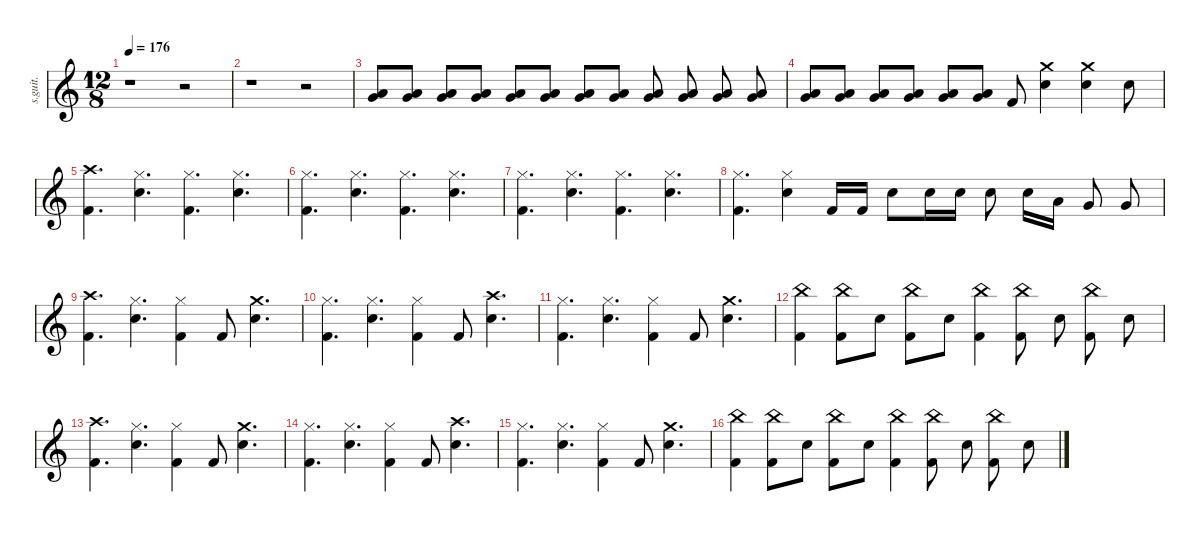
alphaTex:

\defaultSystemsLayout 4
\hideDynamics
\bracketExtendMode nobrackets
\track ("Vinnie Paul" "s.guit.") {instrument percussion}
\staff {score}
\articulation defaults
\ts (12 8)
\beaming (8 2 2 2 2)
\tempo 176
\clef g2
\ks c
r.1{dy f} r.2 |
r.1 r.2 |
("Very Low Tom (hit)" "Low Floor Tom (hit)").8{lyrics (0 "") lyrics (1 "") lyrics (2 "") lyrics (3 "") lyrics (4 "")} ("Very Low Tom (hit)" "Low Floor Tom (hit)").8{lyrics (0 "") lyrics (1 "") lyrics (2 "") lyrics (3 "") lyrics (4 "")} ("Very Low Tom (hit)" "Low Floor Tom (hit)").8{lyrics (0 "") lyrics (1 "") lyrics (2 "") lyrics (3 "") lyrics (4 "")} ("Very Low Tom (hit)" "Low Floor Tom (hit)").8{lyrics (0 "") lyrics (1 "") lyrics (2 "") lyrics (3 "") lyrics (4 "")} ("Very Low Tom (hit)" "Low Floor Tom (hit)").8{lyrics (0 "") lyrics (1 "") lyrics (2 "") lyrics (3 "") lyrics (4 "")} ("Very Low Tom (hit)" "Low Floor Tom (hit)").8{lyrics (0 "") lyrics (1 "") lyrics (2 "") lyrics (3 "") lyrics (4 "")} ("Very Low Tom (hit)" "Low Floor Tom (hit)").8{lyrics (0 "") lyrics (1 "") lyrics (2 "") lyrics (3 "") lyrics (4 "")} ("Very Low Tom (hit)" "Low Floor Tom (hit)").8{lyrics (0 "") lyrics (1 "") lyrics (2 "") lyrics (3 "") lyrics (4 "")} ("Very Low Tom (hit)" "Low Floor Tom (hit)").8{lyrics (0 "") lyrics (1 "") lyrics (2 "") lyrics (3 "") lyrics (4 "")} ("Very Low Tom (hit)" "Low Floor Tom (hit)").8{lyrics (0 "") lyrics (1 "") lyrics (2 "") lyrics (3 "") lyrics (4 "")} ("Very Low Tom (hit)" "Low Floor Tom (hit)").8{lyrics (0 "") lyrics (1 "") lyrics (2 "") lyrics (3 "") lyrics (4 "")} ("Very Low Tom (hit)" "Low Floor Tom (hit)").8{lyrics (0 "") lyrics (1 "") lyrics (2 "") lyrics (3 "") lyrics (4 "")} |
("Very Low Tom (hit)" "Low Floor Tom (hit)").8{lyrics (0 "") lyrics (1 "") lyrics (2 "") lyrics (3 "") lyrics (4 "")} ("Very Low Tom (hit)" "Low Floor Tom (hit)").8{lyrics (0 "") lyrics (1 "") lyrics (2 "") lyrics (3 "") lyrics (4 "")} ("Very Low Tom (hit)" "Low Floor Tom (hit)").8{lyrics (0 "") lyrics (1 "") lyrics (2 "") lyrics (3 "") lyrics (4 "")} ("Very Low Tom (hit)" "Low Floor Tom (hit)").8{lyrics (0 "") lyrics (1 "") lyrics (2 "") lyrics (3 "") lyrics (4 "")} ("Very Low Tom (hit)" "Low Floor Tom (hit)").8{lyrics (0 "") lyrics (1 "") lyrics (2 "") lyrics (3 "") lyrics (4 "")} ("Very Low Tom (hit)" "Low Floor Tom (hit)").8{lyrics (0 "") lyrics (1 "") lyrics (2 "") lyrics (3 "") lyrics (4 "")} "Kick (hit) 2".8{lyrics (0 "") lyrics (1 "") lyrics (2 "") lyrics (3 "") lyrics (4 "")} ("Crash medium (hit)" "Snare (hit) 2").4{lyrics (0 "") lyrics (1 "") lyrics (2 "") lyrics (3 "") lyrics (4 "")} ("Crash medium (hit)" "Snare (hit) 2").4{lyrics (0 "") lyrics (1 "") lyrics (2 "") lyrics (3 "") lyrics (4 "")} "Snare (hit) 2".8{lyrics (0 "") lyrics (1 "") lyrics (2 "") lyrics (3 "") lyrics (4 "")} |
("Crash high (hit)" "Kick (hit) 2").4{d lyrics (0 "") lyrics (1 "") lyrics (2 "") lyrics (3 "") lyrics (4 "")} ("Hi-Hat (closed)" "Snare (hit) 2").4{d lyrics (0 "") lyrics (1 "") lyrics (2 "") lyrics (3 "") lyrics (4 "")} ("Hi-Hat (closed)" "Kick (hit) 2").4{d lyrics (0 "") lyrics (1 "") lyrics (2 "") lyrics (3 "") lyrics (4 "")} ("Hi-Hat (closed)" "Snare (hit) 2").4{d lyrics (0 "") lyrics (1 "") lyrics (2 "") lyrics (3 "") lyrics (4 "")} |
("Hi-Hat (closed)" "Kick (hit) 2").4{d lyrics (0 "") lyrics (1 "") lyrics (2 "") lyrics (3 "") lyrics (4 "")} ("Hi-Hat (closed)" "Snare (hit) 2").4{d lyrics (0 "") lyrics (1 "") lyrics (2 "") lyrics (3 "") lyrics (4 "")} ("Hi-Hat (closed)" "Kick (hit) 2").4{d lyrics (0 "") lyrics (1 "") lyrics (2 "") lyrics (3 "") lyrics (4 "")} ("Hi-Hat (closed)" "Snare (hit) 2").4{d lyrics (0 "") lyrics (1 "") lyrics (2 "") lyrics (3 "") lyrics (4 "")} |
("Hi-Hat (closed)" "Kick (hit) 2").4{d lyrics (0 "") lyrics (1 "") lyrics (2 "") lyrics (3 "") lyrics (4 "")} ("Hi-Hat (closed)" "Snare (hit) 2").4{d lyrics (0 "") lyrics (1 "") lyrics (2 "") lyrics (3 "") lyrics (4 "")} ("Hi-Hat (closed)" "Kick (hit) 2").4{d lyrics (0 "") lyrics (1 "") lyrics (2 "") lyrics (3 "") lyrics (4 "")} ("Hi-Hat (closed)" "Snare (hit) 2").4{d lyrics (0 "") lyrics (1 "") lyrics (2 "") lyrics (3 "") lyrics (4 "")} |
("Hi-Hat (closed)" "Kick (hit) 2").4{d lyrics (0 "") lyrics (1 "") lyrics (2 "") lyrics (3 "") lyrics (4 "")} ("Hi-Hat (closed)" "Snare (hit) 2").4{lyrics (0 "") lyrics (1 "") lyrics (2 "") lyrics (3 "") lyrics (4 "")} "Kick (hit) 2".16{lyrics (0 "") lyrics (1 "") lyrics (2 "") lyrics (3 "") lyrics (4 "")} "Kick (hit) 2".16{lyrics (0 "") lyrics (1 "") lyrics (2 "") lyrics (3 "") lyrics (4 "")} "Snare (hit) 2".8{lyrics (0 "") lyrics (1 "") lyrics (2 "") lyrics (3 "") lyrics (4 "")} "Snare (hit) 2".16{lyrics (0 "") lyrics (1 "") lyrics (2 "") lyrics (3 "") lyrics (4 "")} "Snare (hit) 2".16{lyrics (0 "") lyrics (1 "") lyrics (2 "") lyrics (3 "") lyrics (4 "")} "Snare (hit) 2".8{lyrics (0 "") lyrics (1 "") lyrics (2 "") lyrics (3 "") lyrics (4 "")} "Snare (hit) 2".16{lyrics (0 "") lyrics (1 "") lyrics (2 "") lyrics (3 "") lyrics (4 "")} "Low Tom (hit)".16{lyrics (0 "") lyrics (1 "") lyrics (2 "") lyrics (3 "") lyrics (4 "")} "Very Low Tom (hit)".8{lyrics (0 "") lyrics (1 "") lyrics (2 "") lyrics (3 "") lyrics (4 "")} "Very Low Tom (hit)".8{lyrics (0 "") lyrics (1 "") lyrics (2 "") lyrics (3 "") lyrics (4 "")} |
("Crash high (hit)" "Kick (hit) 2").4{d lyrics (0 "") lyrics (1 "") lyrics (2 "") lyrics (3 "") lyrics (4 "")} ("Hi-Hat (closed)" "Snare (hit) 2").4{d lyrics (0 "") lyrics (1 "") lyrics (2 "") lyrics (3 "") lyrics (4 "")} ("Hi-Hat (closed)" "Kick (hit) 2").4{lyrics (0 "") lyrics (1 "") lyrics (2 "") lyrics (3 "") lyrics (4 "")} "Kick (hit) 2".8{lyrics (0 "") lyrics (1 "") lyrics (2 "") lyrics (3 "") lyrics (4 "")} ("Crash medium (hit)" "Snare (hit) 2").4{d lyrics (0 "") lyrics (1 "") lyrics (2 "") lyrics (3 "") lyrics (4 "")} |
("Hi-Hat (closed)" "Kick (hit) 2").4{d lyrics (0 "") lyrics (1 "") lyrics (2 "") lyrics (3 "") lyrics (4 "")} ("Hi-Hat (closed)" "Snare (hit) 2").4{d lyrics (0 "") lyrics (1 "") lyrics (2 "") lyrics (3 "") lyrics (4 "")} ("Hi-Hat (closed)" "Kick (hit) 2").4{lyrics (0 "") lyrics (1 "") lyrics (2 "") lyrics (3 "") lyrics (4 "")} "Kick (hit) 2".8{lyrics (0 "") lyrics (1 "") lyrics (2 "") lyrics (3 "") lyrics (4 "")} ("Crash high (hit)" "Snare (hit) 2").4{d lyrics (0 "") lyrics (1 "") lyrics (2 "") lyrics (3 "") lyrics (4 "")} |
("Hi-Hat (closed)" "Kick (hit) 2").4{d lyrics (0 "") lyrics (1 "") lyrics (2 "") lyrics (3 "") lyrics (4 "")} ("Hi-Hat (closed)" "Snare (hit) 2").4{d lyrics (0 "") lyrics (1 "") lyrics (2 "") lyrics (3 "") lyrics (4 "")} ("Hi-Hat (closed)" "Kick (hit) 2").4{lyrics (0 "") lyrics (1 "") lyrics (2 "") lyrics (3 "") lyrics (4 "")} "Kick (hit) 2".8{lyrics (0 "") lyrics (1 "") lyrics (2 "") lyrics (3 "") lyrics (4 "")} ("Crash medium (hit)" "Snare (hit) 2").4{d lyrics (0 "") lyrics (1 "") lyrics (2 "") lyrics (3 "") lyrics (4 "")} |
("China (hit)" "Kick (hit) 2").4{lyrics (0 "") lyrics (1 "") lyrics (2 "") lyrics (3 "") lyrics (4 "")} ("China (hit)" "Kick (hit) 2").8{lyrics (0 "") lyrics (1 "") lyrics (2 "") lyrics (3 "") lyrics (4 "")} "Snare (hit) 2".8{lyrics (0 "") lyrics (1 "") lyrics (2 "") lyrics (3 "") lyrics (4 "")} ("China (hit)" "Kick (hit) 2").8{lyrics (0 "") lyrics (1 "") lyrics (2 "") lyrics (3 "") lyrics (4 "")} "Snare (hit) 2".8{lyrics (0 "") lyrics (1 "") lyrics (2 "") lyrics (3 "") lyrics (4 "")} ("China (hit)" "Kick (hit) 2").4{lyrics (0 "") lyrics (1 "") lyrics (2 "") lyrics (3 "") lyrics (4 "")} ("China (hit)" "Kick (hit) 2").8{lyrics (0 "") lyrics (1 "") lyrics (2 "") lyrics (3 "") lyrics (4 "")} "Snare (hit) 2".8{lyrics (0 "") lyrics (1 "") lyrics (2 "") lyrics (3 "") lyrics (4 "")} ("China (hit)" "Kick (hit) 2").8{lyrics (0 "") lyrics (1 "") lyrics (2 "") lyrics (3 "") lyrics (4 "")} "Snare (hit) 2".8{lyrics (0 "") lyrics (1 "") lyrics (2 "") lyrics (3 "") lyrics (4 "")} |
("Crash high (hit)" "Kick (hit) 2").4{d lyrics (0 "") lyrics (1 "") lyrics (2 "") lyrics (3 "") lyrics (4 "")} ("Hi-Hat (closed)" "Snare (hit) 2").4{d lyrics (0 "") lyrics (1 "") lyrics (2 "") lyrics (3 "") lyrics (4 "")} ("Hi-Hat (closed)" "Kick (hit) 2").4{lyrics (0 "") lyrics (1 "") lyrics (2 "") lyrics (3 "") lyrics (4 "")} "Kick (hit) 2".8{lyrics (0 "") lyrics (1 "") lyrics (2 "") lyrics (3 "") lyrics (4 "")} ("Crash medium (hit)" "Snare (hit) 2").4{d lyrics (0 "") lyrics (1 "") lyrics (2 "") lyrics (3 "") lyrics (4 "")} |
("Hi-Hat (closed)" "Kick (hit) 2").4{d lyrics (0 "") lyrics (1 "") lyrics (2 "") lyrics (3 "") lyrics (4 "")} ("Hi-Hat (closed)" "Snare (hit) 2").4{d lyrics (0 "") lyrics (1 "") lyrics (2 "") lyrics (3 "") lyrics (4 "")} ("Hi-Hat (closed)" "Kick (hit) 2").4{lyrics (0 "") lyrics (1 "") lyrics (2 "") lyrics (3 "") lyrics (4 "")} "Kick (hit) 2".8{lyrics (0 "") lyrics (1 "") lyrics (2 "") lyrics (3 "") lyrics (4 "")} ("Crash high (hit)" "Snare (hit) 2").4{d lyrics (0 "") lyrics (1 "") lyrics (2 "") lyrics (3 "") lyrics (4 "")} |
("Hi-Hat (closed)" "Kick (hit) 2").4{d lyrics (0 "") lyrics (1 "") lyrics (2 "") lyrics (3 "") lyrics (4 "")} ("Hi-Hat (closed)" "Snare (hit) 2").4{d lyrics (0 "") lyrics (1 "") lyrics (2 "") lyrics (3 "") lyrics (4 "")} ("Hi-Hat (closed)" "Kick (hit) 2").4{lyrics (0 "") lyrics (1 "") lyrics (2 "") lyrics (3 "") lyrics (4 "")} "Kick (hit) 2".8{lyrics (0 "") lyrics (1 "") lyrics (2 "") lyrics (3 "") lyrics (4 "")} ("Crash medium (hit)" "Snare (hit) 2").4{d lyrics (0 "") lyrics (1 "") lyrics (2 "") lyrics (3 "") lyrics (4 "")} |
("China (hit)" "Kick (hit) 2").4{lyrics (0 "") lyrics (1 "") lyrics (2 "") lyrics (3 "") lyrics (4 "")} ("China (hit)" "Kick (hit) 2").8{lyrics (0 "") lyrics (1 "") lyrics (2 "") lyrics (3 "") lyrics (4 "")} "Snare (hit) 2".8{lyrics (0 "") lyrics (1 "") lyrics (2 "") lyrics (3 "") lyrics (4 "")} ("China (hit)" "Kick (hit) 2").8{lyrics (0 "") lyrics (1 "") lyrics (2 "") lyrics (3 "") lyrics (4 "")} "Snare (hit) 2".8{lyrics (0 "") lyrics (1 "") lyrics (2 "") lyrics (3 "") lyrics (4 "")} ("China (hit)" "Kick (hit) 2").4{lyrics (0 "") lyrics (1 "") lyrics (2 "") lyrics (3 "") lyrics (4 "")} ("China (hit)" "Kick (hit) 2").8{lyrics (0 "") lyrics (1 "") lyrics (2 "") lyrics (3 "") lyrics (4 "")} "Snare (hit) 2".8{lyrics (0 "") lyrics (1 "") lyrics (2 "") lyrics (3 "") lyrics (4 "")} ("China (hit)" "Kick (hit) 2").8{lyrics (0 "") lyrics (1 "") lyrics (2 "") lyrics (3 "") lyrics (4 "")} "Snare (hit) 2".8{lyrics (0 "") lyrics (1 "") lyrics (2 "") lyrics (3 "") lyrics (4 "")}
